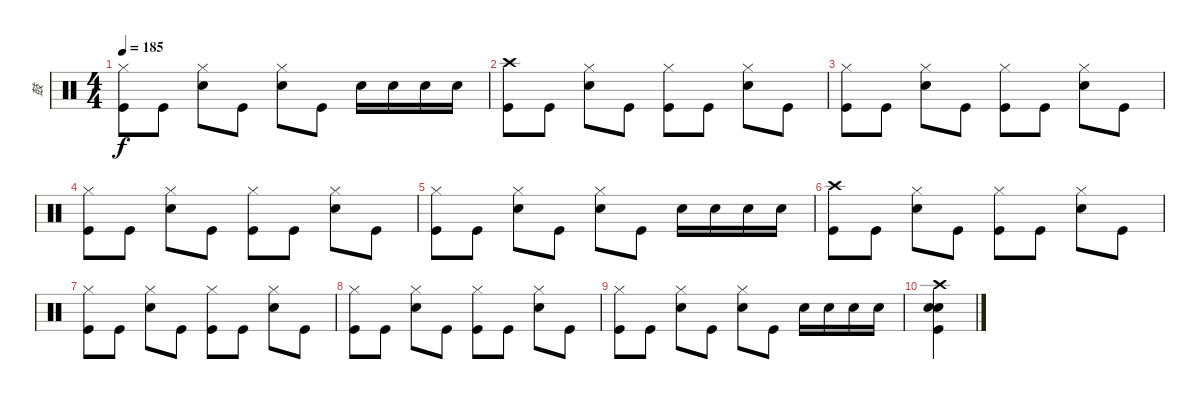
\track ("鼓" "鼓") {instrument percussion}
\staff {score}
\articulation defaults
\ts (4 4)
\tempo 185
\clef neutral
\ks c
("Hi-Hat (closed)" "Kick (hit)").8{dy f} "Kick (hit)".8 ("Hi-Hat (closed)" "Snare (hit) 2").8 "Kick (hit)".8 ("Hi-Hat (closed)" "Snare (hit) 2").8 "Kick (hit)".8 "Snare (hit) 2".16 "Snare (hit) 2".16 "Snare (hit) 2".16 "Snare (hit) 2".16 |
("Crash high (hit)" "Kick (hit)").8 "Kick (hit)".8 ("Hi-Hat (closed)" "Snare (hit) 2").8 "Kick (hit)".8 ("Hi-Hat (closed)" "Kick (hit)").8 "Kick (hit)".8 ("Hi-Hat (closed)" "Snare (hit) 2").8 "Kick (hit)".8 |
("Hi-Hat (closed)" "Kick (hit)").8 "Kick (hit)".8 ("Hi-Hat (closed)" "Snare (hit) 2").8 "Kick (hit)".8 ("Hi-Hat (closed)" "Kick (hit)").8 "Kick (hit)".8 ("Hi-Hat (closed)" "Snare (hit) 2").8 "Kick (hit)".8 |
("Hi-Hat (closed)" "Kick (hit)").8 "Kick (hit)".8 ("Hi-Hat (closed)" "Snare (hit) 2").8 "Kick (hit)".8 ("Hi-Hat (closed)" "Kick (hit)").8 "Kick (hit)".8 ("Hi-Hat (closed)" "Snare (hit) 2").8 "Kick (hit)".8 |
("Hi-Hat (closed)" "Kick (hit)").8 "Kick (hit)".8 ("Hi-Hat (closed)" "Snare (hit) 2").8 "Kick (hit)".8 ("Hi-Hat (closed)" "Snare (hit) 2").8 "Kick (hit)".8 "Snare (hit) 2".16 "Snare (hit) 2".16 "Snare (hit) 2".16 "Snare (hit) 2".16 |
("Crash high (hit)" "Kick (hit)").8 "Kick (hit)".8 ("Hi-Hat (closed)" "Snare (hit) 2").8 "Kick (hit)".8 ("Hi-Hat (closed)" "Kick (hit)").8 "Kick (hit)".8 ("Hi-Hat (closed)" "Snare (hit) 2").8 "Kick (hit)".8 |
("Hi-Hat (closed)" "Kick (hit)").8 "Kick (hit)".8 ("Hi-Hat (closed)" "Snare (hit) 2").8 "Kick (hit)".8 ("Hi-Hat (closed)" "Kick (hit)").8 "Kick (hit)".8 ("Hi-Hat (closed)" "Snare (hit) 2").8 "Kick (hit)".8 |
("Hi-Hat (closed)" "Kick (hit)").8 "Kick (hit)".8 ("Hi-Hat (closed)" "Snare (hit) 2").8 "Kick (hit)".8 ("Hi-Hat (closed)" "Kick (hit)").8 "Kick (hit)".8 ("Hi-Hat (closed)" "Snare (hit) 2").8 "Kick (hit)".8 |
("Hi-Hat (closed)" "Kick (hit)").8 "Kick (hit)".8 ("Hi-Hat (closed)" "Snare (hit) 2").8 "Kick (hit)".8 ("Hi-Hat (closed)" "Snare (hit) 2").8 "Kick (hit)".8 "Snare (hit) 2".16 "Snare (hit) 2".16 "Snare (hit) 2".16 "Snare (hit) 2".16 |
("Crash high (hit)" "Snare (hit) 2" "Snare (hit) 2" "Kick (hit)").4
